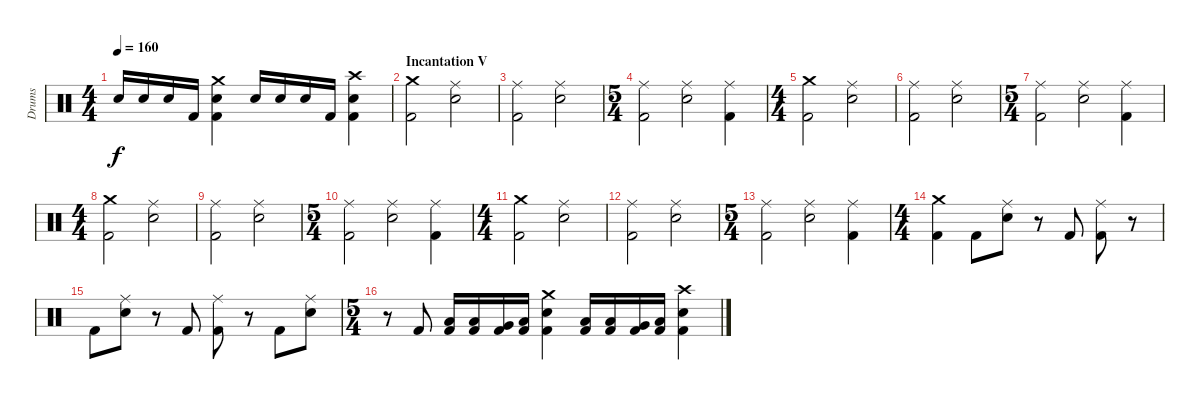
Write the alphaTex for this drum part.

\track ("Drums" "Drums") {instrument percussion}
\staff {score}
\articulation defaults
\ts (4 4)
\tempo 160
\clef neutral
\ks c "Electric Snare (hit)".16{dy f} "Electric Snare (hit)".16 "Electric Snare (hit)".16 "Kick (hit) 2".16
("Crash medium (hit)" "Electric Snare (hit)" "Kick (hit) 2").4 "Electric Snare (hit)".16 "Electric Snare (hit)".16 "Electric Snare (hit)".16 "Kick (hit) 2".16 ("Crash high (hit)" "Electric Snare (hit)" "Kick (hit) 2").4 |
\section ("" "Incantation V")
("Crash medium (hit)" "Kick (hit) 2").2 ("Ride (middle)" "Electric Snare (hit)").2 |
("Ride (middle)" "Kick (hit) 2").2 ("Ride (middle)" "Electric Snare (hit)").2 |
\ts (5 4)
("Ride (middle)" "Kick (hit) 2").2 ("Ride (middle)" "Electric Snare (hit)").2 ("Ride (middle)" "Kick (hit) 2").4 |
\ts (4 4)
("Crash medium (hit)" "Kick (hit) 2").2 ("Ride (middle)" "Electric Snare (hit)").2 |
("Ride (middle)" "Kick (hit) 2").2 ("Ride (middle)" "Electric Snare (hit)").2 |
\ts (5 4)
("Ride (middle)" "Kick (hit) 2").2 ("Ride (middle)" "Electric Snare (hit)").2 ("Ride (middle)" "Kick (hit) 2").4 |
\ts (4 4)
("Crash medium (hit)" "Kick (hit) 2").2 ("Ride (middle)" "Electric Snare (hit)").2 |
("Ride (middle)" "Kick (hit) 2").2 ("Ride (middle)" "Electric Snare (hit)").2 |
\ts (5 4)
("Ride (middle)" "Kick (hit) 2").2 ("Ride (middle)" "Electric Snare (hit)").2 ("Ride (middle)" "Kick (hit) 2").4 |
\ts (4 4)
("Crash medium (hit)" "Kick (hit) 2").2 ("Ride (middle)" "Electric Snare (hit)").2 |
("Ride (middle)" "Kick (hit) 2").2 ("Ride (middle)" "Electric Snare (hit)").2 |
\ts (5 4)
("Ride (middle)" "Kick (hit) 2").2 ("Ride (middle)" "Electric Snare (hit)").2 ("Ride (middle)" "Kick (hit) 2").4 |
\ts (4 4)
\section ("" "")
("Crash medium (hit)" "Kick (hit) 2").4 "Kick (hit) 2".8 ("Ride (middle)" "Electric Snare (hit)").8 r.8 "Kick (hit) 2".8 ("Ride (middle)" "Kick (hit) 2").8 r.8 |
"Kick (hit) 2".8 ("Ride (middle)" "Electric Snare (hit)").8 r.8 "Kick (hit) 2".8 ("Ride (middle)" "Kick (hit) 2").8 r.8 "Kick (hit) 2".8 ("Ride (middle)" "Electric Snare (hit)").8 |
\ts (5 4)
r.8 "Kick (hit) 2".8 ("Low Tom (hit)" "Kick (hit) 2").16 ("Low Tom (hit)" "Kick (hit) 2").16 ("Very Low Tom (hit)" "Kick (hit) 2").16 ("Low Floor Tom (hit)" "Kick (hit) 2").16 ("Crash medium (hit)" "Electric Snare (hit)" "Kick (hit) 2").4 ("Low Tom (hit)" "Kick (hit) 2").16 ("Low Tom (hit)" "Kick (hit) 2").16 ("Very Low Tom (hit)" "Kick (hit) 2").16 ("Low Floor Tom (hit)" "Kick (hit) 2").16 ("Crash high (hit)" "Electric Snare (hit)" "Kick (hit) 2").4
